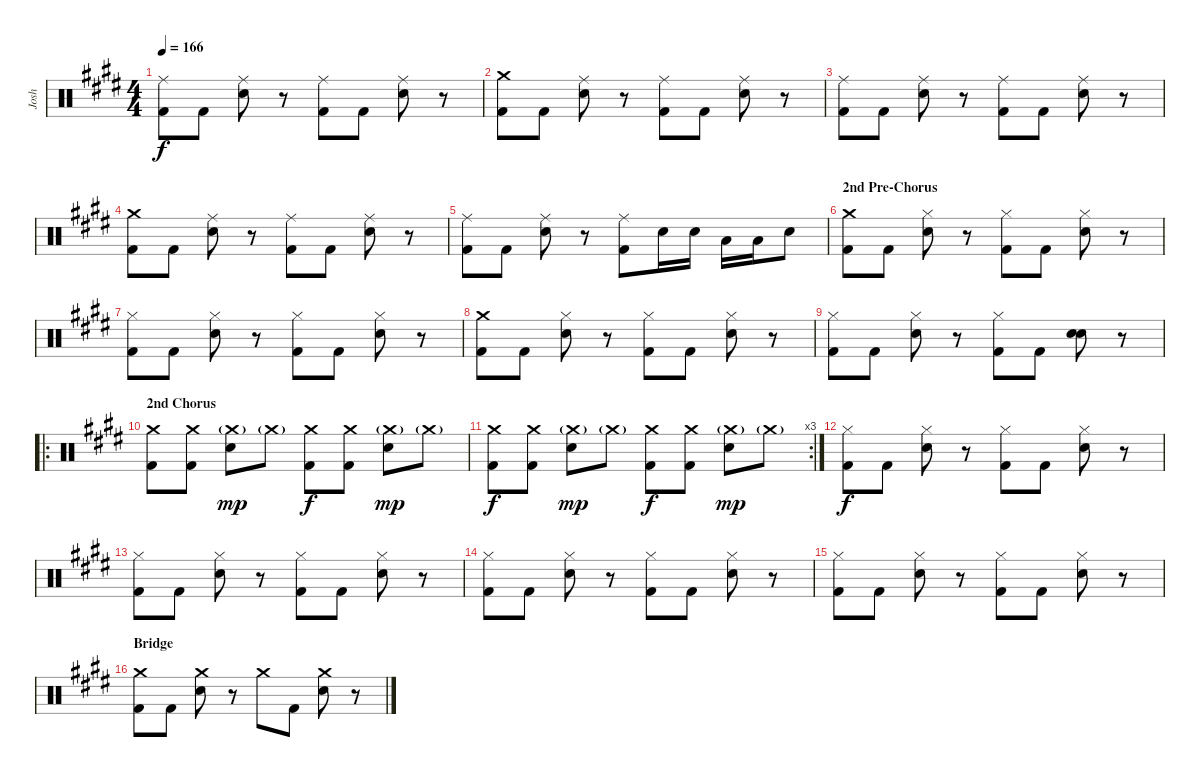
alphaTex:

\track ("Josh" "Josh") {instrument percussion}
\staff {score}
\articulation defaults
\ts (4 4)
\tempo 166
\clef neutral
\ks e
("Ride (middle)" "Kick (hit) 2").8{dy f} "Kick (hit) 2".8 ("Ride (middle)" "Electric Snare (hit)").8 r.8 ("Ride (middle)" "Kick (hit) 2").8 "Kick (hit) 2".8 ("Ride (middle)" "Electric Snare (hit)").8 r.8 |
("Crash medium (hit)" "Kick (hit) 2").8 "Kick (hit) 2".8 ("Ride (middle)" "Electric Snare (hit)").8 r.8 ("Ride (middle)" "Kick (hit) 2").8 "Kick (hit) 2".8 ("Ride (middle)" "Electric Snare (hit)").8 r.8 |
("Ride (middle)" "Kick (hit) 2").8 "Kick (hit) 2".8 ("Ride (middle)" "Electric Snare (hit)").8 r.8 ("Ride (middle)" "Kick (hit) 2").8 "Kick (hit) 2".8 ("Ride (middle)" "Electric Snare (hit)").8 r.8 |
("Crash medium (hit)" "Kick (hit) 2").8 "Kick (hit) 2".8 ("Ride (middle)" "Electric Snare (hit)").8 r.8 ("Ride (middle)" "Kick (hit) 2").8 "Kick (hit) 2".8 ("Ride (middle)" "Electric Snare (hit)").8 r.8 |
("Ride (middle)" "Kick (hit) 2").8 "Kick (hit) 2".8 ("Ride (middle)" "Electric Snare (hit)").8 r.8 ("Ride (middle)" "Kick (hit) 2").8 "Electric Snare (hit)".16 "Electric Snare (hit)".16 "Low Tom (hit)".16 "Low Tom (hit)".16 "Electric Snare (hit)".8 |
\section ("" "2nd Pre-Chorus")
("Crash medium (hit)" "Kick (hit) 2").8 "Kick (hit) 2".8 ("Hi-Hat (closed)" "Electric Snare (hit)").8 r.8 ("Hi-Hat (closed)" "Kick (hit) 2").8 "Kick (hit) 2".8 ("Hi-Hat (closed)" "Electric Snare (hit)").8 r.8 |
("Hi-Hat (closed)" "Kick (hit) 2").8 "Kick (hit) 2".8 ("Hi-Hat (closed)" "Electric Snare (hit)").8 r.8 ("Hi-Hat (closed)" "Kick (hit) 2").8 "Kick (hit) 2".8 ("Hi-Hat (closed)" "Electric Snare (hit)").8 r.8 |
("Crash medium (hit)" "Kick (hit) 2").8 "Kick (hit) 2".8 ("Hi-Hat (closed)" "Electric Snare (hit)").8 r.8 ("Hi-Hat (closed)" "Kick (hit) 2").8 "Kick (hit) 2".8 ("Hi-Hat (closed)" "Electric Snare (hit)").8 r.8 |
("Hi-Hat (closed)" "Kick (hit) 2").8 "Kick (hit) 2".8 ("Hi-Hat (closed)" "Electric Snare (hit)").8 r.8 ("Hi-Hat (closed)" "Kick (hit) 2").8 "Kick (hit) 2".8 ("Electric Snare (hit)" "Electric Snare (hit)").8{bd 240} r.8 |
\ro
\section ("" "2nd Chorus")
("Crash medium (hit)" "Kick (hit) 2").8 ("Crash medium (hit)" "Kick (hit) 2").8 ("Crash medium (hit)"{g} "Electric Snare (hit)").8{dy mp} "Crash medium (hit)"{g}.8 ("Crash medium (hit)" "Kick (hit) 2").8{dy f} ("Crash medium (hit)" "Kick (hit) 2").8 ("Crash medium (hit)"{g} "Electric Snare (hit)").8{dy mp} "Crash medium (hit)"{g}.8 |
\rc 3
("Crash medium (hit)" "Kick (hit) 2").8{dy f} ("Crash medium (hit)" "Kick (hit) 2").8 ("Crash medium (hit)"{g} "Electric Snare (hit)").8{dy mp} "Crash medium (hit)"{g}.8 ("Crash medium (hit)" "Kick (hit) 2").8{dy f} ("Crash medium (hit)" "Kick (hit) 2").8 ("Crash medium (hit)"{g} "Electric Snare (hit)").8{dy mp} "Crash medium (hit)"{g}.8 |
("Hi-Hat (closed)" "Kick (hit) 2").8{dy f} "Kick (hit) 2".8 ("Hi-Hat (closed)" "Electric Snare (hit)").8 r.8 ("Hi-Hat (closed)" "Kick (hit) 2").8 "Kick (hit) 2".8 ("Hi-Hat (closed)" "Electric Snare (hit)").8 r.8 |
("Hi-Hat (closed)" "Kick (hit) 2").8 "Kick (hit) 2".8 ("Hi-Hat (closed)" "Electric Snare (hit)").8 r.8 ("Hi-Hat (closed)" "Kick (hit) 2").8 "Kick (hit) 2".8 ("Hi-Hat (closed)" "Electric Snare (hit)").8 r.8 |
("Hi-Hat (closed)" "Kick (hit) 2").8 "Kick (hit) 2".8 ("Hi-Hat (closed)" "Electric Snare (hit)").8 r.8 ("Hi-Hat (closed)" "Kick (hit) 2").8 "Kick (hit) 2".8 ("Hi-Hat (closed)" "Electric Snare (hit)").8 r.8 |
("Hi-Hat (closed)" "Kick (hit) 2").8 "Kick (hit) 2".8 ("Hi-Hat (closed)" "Electric Snare (hit)").8 r.8 ("Hi-Hat (closed)" "Kick (hit) 2").8 "Kick (hit) 2".8 ("Hi-Hat (closed)" "Electric Snare (hit)").8 r.8 |
\section ("" "Bridge")
("Crash medium (hit)" "Kick (hit) 2").8 "Kick (hit) 2".8 ("Crash medium (hit)" "Electric Snare (hit)").8 r.8 "Crash medium (hit)".8 "Kick (hit) 2".8 ("Crash medium (hit)" "Electric Snare (hit)").8 r.8
